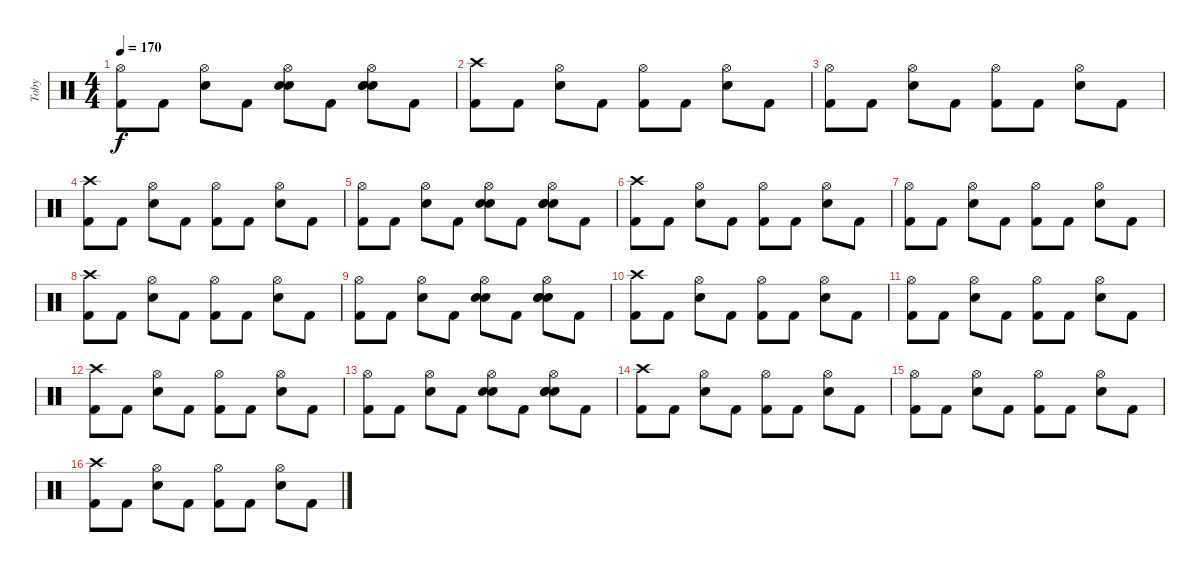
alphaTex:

\track ("Toby" "Toby") {instrument percussion}
\staff {score}
\articulation defaults
\ts (4 4)
\tempo 170
\clef neutral
\ks c
("Hi-Hat (open)" "Kick (hit) 2").8{dy f} "Kick (hit) 2".8 ("Hi-Hat (open)" "Electric Snare (hit)").8 "Kick (hit) 2".8 ("Hi-Hat (open)" "Electric Snare (hit)" "Electric Snare (hit)").8 "Kick (hit) 2".8 ("Hi-Hat (open)" "Electric Snare (hit)" "Electric Snare (hit)" "Electric Snare (hit)").8 "Kick (hit) 2".8 |
("Crash high (hit)" "Kick (hit) 2").8 "Kick (hit) 2".8 ("Hi-Hat (open)" "Electric Snare (hit)").8 "Kick (hit) 2".8 ("Hi-Hat (open)" "Kick (hit) 2").8 "Kick (hit) 2".8 ("Hi-Hat (open)" "Electric Snare (hit)").8 "Kick (hit) 2".8 |
("Hi-Hat (open)" "Kick (hit) 2").8 "Kick (hit) 2".8 ("Hi-Hat (open)" "Electric Snare (hit)").8 "Kick (hit) 2".8 ("Hi-Hat (open)" "Kick (hit) 2").8 "Kick (hit) 2".8 ("Hi-Hat (open)" "Electric Snare (hit)").8 "Kick (hit) 2".8 |
("Crash high (hit)" "Kick (hit) 2").8 "Kick (hit) 2".8 ("Hi-Hat (open)" "Electric Snare (hit)").8 "Kick (hit) 2".8 ("Hi-Hat (open)" "Kick (hit) 2").8 "Kick (hit) 2".8 ("Hi-Hat (open)" "Electric Snare (hit)").8 "Kick (hit) 2".8 |
("Hi-Hat (open)" "Kick (hit) 2").8 "Kick (hit) 2".8 ("Hi-Hat (open)" "Electric Snare (hit)").8 "Kick (hit) 2".8 ("Hi-Hat (open)" "Electric Snare (hit)" "Electric Snare (hit)").8 "Kick (hit) 2".8 ("Hi-Hat (open)" "Electric Snare (hit)" "Electric Snare (hit)" "Electric Snare (hit)").8 "Kick (hit) 2".8 |
("Crash high (hit)" "Kick (hit) 2").8 "Kick (hit) 2".8 ("Hi-Hat (open)" "Electric Snare (hit)").8 "Kick (hit) 2".8 ("Hi-Hat (open)" "Kick (hit) 2").8 "Kick (hit) 2".8 ("Hi-Hat (open)" "Electric Snare (hit)").8 "Kick (hit) 2".8 |
("Hi-Hat (open)" "Kick (hit) 2").8 "Kick (hit) 2".8 ("Hi-Hat (open)" "Electric Snare (hit)").8 "Kick (hit) 2".8 ("Hi-Hat (open)" "Kick (hit) 2").8 "Kick (hit) 2".8 ("Hi-Hat (open)" "Electric Snare (hit)").8 "Kick (hit) 2".8 |
("Crash high (hit)" "Kick (hit) 2").8 "Kick (hit) 2".8 ("Hi-Hat (open)" "Electric Snare (hit)").8 "Kick (hit) 2".8 ("Hi-Hat (open)" "Kick (hit) 2").8 "Kick (hit) 2".8 ("Hi-Hat (open)" "Electric Snare (hit)").8 "Kick (hit) 2".8 |
("Hi-Hat (open)" "Kick (hit) 2").8 "Kick (hit) 2".8 ("Hi-Hat (open)" "Electric Snare (hit)").8 "Kick (hit) 2".8 ("Hi-Hat (open)" "Electric Snare (hit)" "Electric Snare (hit)").8 "Kick (hit) 2".8 ("Hi-Hat (open)" "Electric Snare (hit)" "Electric Snare (hit)" "Electric Snare (hit)").8 "Kick (hit) 2".8 |
("Crash high (hit)" "Kick (hit) 2").8 "Kick (hit) 2".8 ("Hi-Hat (open)" "Electric Snare (hit)").8 "Kick (hit) 2".8 ("Hi-Hat (open)" "Kick (hit) 2").8 "Kick (hit) 2".8 ("Hi-Hat (open)" "Electric Snare (hit)").8 "Kick (hit) 2".8 |
("Hi-Hat (open)" "Kick (hit) 2").8 "Kick (hit) 2".8 ("Hi-Hat (open)" "Electric Snare (hit)").8 "Kick (hit) 2".8 ("Hi-Hat (open)" "Kick (hit) 2").8 "Kick (hit) 2".8 ("Hi-Hat (open)" "Electric Snare (hit)").8 "Kick (hit) 2".8 |
("Crash high (hit)" "Kick (hit) 2").8 "Kick (hit) 2".8 ("Hi-Hat (open)" "Electric Snare (hit)").8 "Kick (hit) 2".8 ("Hi-Hat (open)" "Kick (hit) 2").8 "Kick (hit) 2".8 ("Hi-Hat (open)" "Electric Snare (hit)").8 "Kick (hit) 2".8 |
("Hi-Hat (open)" "Kick (hit) 2").8 "Kick (hit) 2".8 ("Hi-Hat (open)" "Electric Snare (hit)").8 "Kick (hit) 2".8 ("Hi-Hat (open)" "Electric Snare (hit)" "Electric Snare (hit)").8 "Kick (hit) 2".8 ("Hi-Hat (open)" "Electric Snare (hit)" "Electric Snare (hit)" "Electric Snare (hit)").8 "Kick (hit) 2".8 |
("Crash high (hit)" "Kick (hit) 2").8 "Kick (hit) 2".8 ("Hi-Hat (open)" "Electric Snare (hit)").8 "Kick (hit) 2".8 ("Hi-Hat (open)" "Kick (hit) 2").8 "Kick (hit) 2".8 ("Hi-Hat (open)" "Electric Snare (hit)").8 "Kick (hit) 2".8 |
("Hi-Hat (open)" "Kick (hit) 2").8 "Kick (hit) 2".8 ("Hi-Hat (open)" "Electric Snare (hit)").8 "Kick (hit) 2".8 ("Hi-Hat (open)" "Kick (hit) 2").8 "Kick (hit) 2".8 ("Hi-Hat (open)" "Electric Snare (hit)").8 "Kick (hit) 2".8 |
("Crash high (hit)" "Kick (hit) 2").8 "Kick (hit) 2".8 ("Hi-Hat (open)" "Electric Snare (hit)").8 "Kick (hit) 2".8 ("Hi-Hat (open)" "Kick (hit) 2").8 "Kick (hit) 2".8 ("Hi-Hat (open)" "Electric Snare (hit)").8 "Kick (hit) 2".8
